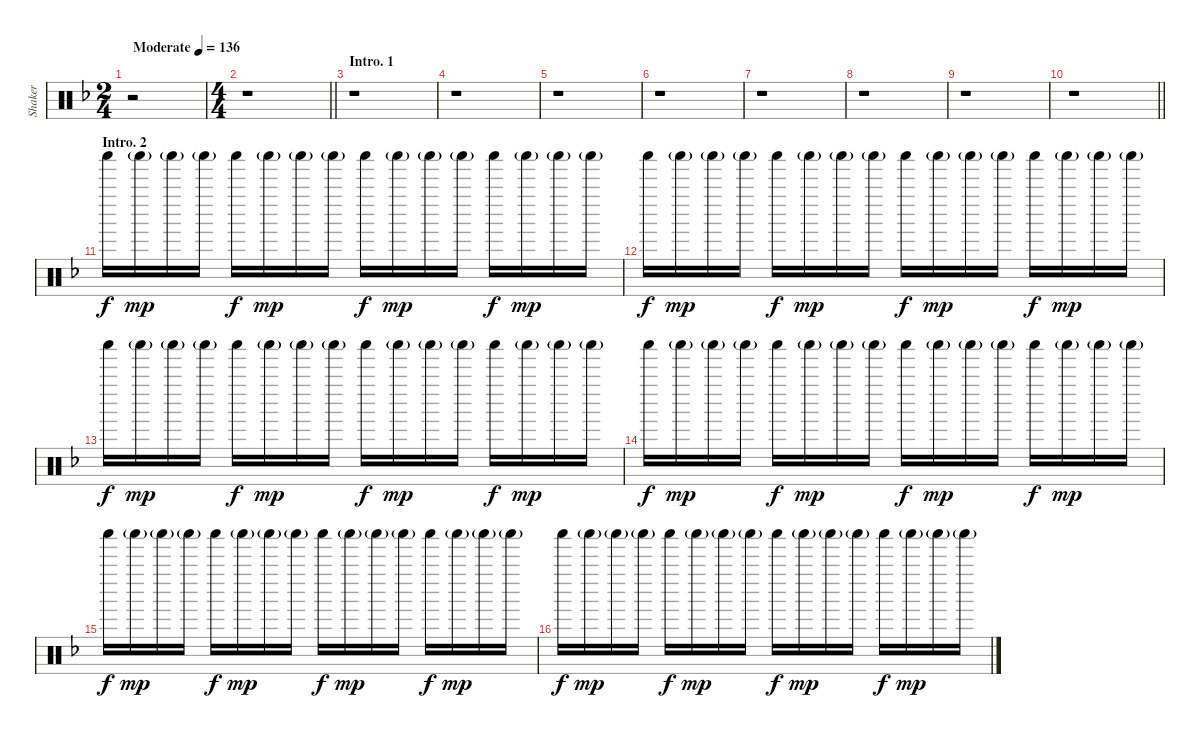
\track ("Shaker" "Shaker") {instrument percussion}
\staff {score}
\articulation defaults
\ts (2 4)
\tempo (136 "Moderate")
\clef neutral
\ks f
r.2{dy f} |
\ts (4 4)
\barLineRight lightlight
r.1 |
\section ("" "Intro. 1")
r.1 |
r.1 |
r.1 |
r.1 |
r.1 |
r.1 |
r.1 |
\barLineRight lightlight
r.1 |
\section ("" "Intro. 2")
"Shaker (hit)".16 "Shaker (hit)"{g}.16{dy mp} "Shaker (hit)"{g}.16 "Shaker (hit)"{g}.16 "Shaker (hit)".16{dy f} "Shaker (hit)"{g}.16{dy mp} "Shaker (hit)"{g}.16 "Shaker (hit)"{g}.16 "Shaker (hit)".16{dy f} "Shaker (hit)"{g}.16{dy mp} "Shaker (hit)"{g}.16 "Shaker (hit)"{g}.16 "Shaker (hit)".16{dy f} "Shaker (hit)"{g}.16{dy mp} "Shaker (hit)"{g}.16 "Shaker (hit)"{g}.16 |
"Shaker (hit)".16{dy f} "Shaker (hit)"{g}.16{dy mp} "Shaker (hit)"{g}.16 "Shaker (hit)"{g}.16 "Shaker (hit)".16{dy f} "Shaker (hit)"{g}.16{dy mp} "Shaker (hit)"{g}.16 "Shaker (hit)"{g}.16 "Shaker (hit)".16{dy f} "Shaker (hit)"{g}.16{dy mp} "Shaker (hit)"{g}.16 "Shaker (hit)"{g}.16 "Shaker (hit)".16{dy f} "Shaker (hit)"{g}.16{dy mp} "Shaker (hit)"{g}.16 "Shaker (hit)"{g}.16 |
"Shaker (hit)".16{dy f} "Shaker (hit)"{g}.16{dy mp} "Shaker (hit)"{g}.16 "Shaker (hit)"{g}.16 "Shaker (hit)".16{dy f} "Shaker (hit)"{g}.16{dy mp} "Shaker (hit)"{g}.16 "Shaker (hit)"{g}.16 "Shaker (hit)".16{dy f} "Shaker (hit)"{g}.16{dy mp} "Shaker (hit)"{g}.16 "Shaker (hit)"{g}.16 "Shaker (hit)".16{dy f} "Shaker (hit)"{g}.16{dy mp} "Shaker (hit)"{g}.16 "Shaker (hit)"{g}.16 |
"Shaker (hit)".16{dy f} "Shaker (hit)"{g}.16{dy mp} "Shaker (hit)"{g}.16 "Shaker (hit)"{g}.16 "Shaker (hit)".16{dy f} "Shaker (hit)"{g}.16{dy mp} "Shaker (hit)"{g}.16 "Shaker (hit)"{g}.16 "Shaker (hit)".16{dy f} "Shaker (hit)"{g}.16{dy mp} "Shaker (hit)"{g}.16 "Shaker (hit)"{g}.16 "Shaker (hit)".16{dy f} "Shaker (hit)"{g}.16{dy mp} "Shaker (hit)"{g}.16 "Shaker (hit)"{g}.16 |
"Shaker (hit)".16{dy f} "Shaker (hit)"{g}.16{dy mp} "Shaker (hit)"{g}.16 "Shaker (hit)"{g}.16 "Shaker (hit)".16{dy f} "Shaker (hit)"{g}.16{dy mp} "Shaker (hit)"{g}.16 "Shaker (hit)"{g}.16 "Shaker (hit)".16{dy f} "Shaker (hit)"{g}.16{dy mp} "Shaker (hit)"{g}.16 "Shaker (hit)"{g}.16 "Shaker (hit)".16{dy f} "Shaker (hit)"{g}.16{dy mp} "Shaker (hit)"{g}.16 "Shaker (hit)"{g}.16 |
"Shaker (hit)".16{dy f} "Shaker (hit)"{g}.16{dy mp} "Shaker (hit)"{g}.16 "Shaker (hit)"{g}.16 "Shaker (hit)".16{dy f} "Shaker (hit)"{g}.16{dy mp} "Shaker (hit)"{g}.16 "Shaker (hit)"{g}.16 "Shaker (hit)".16{dy f} "Shaker (hit)"{g}.16{dy mp} "Shaker (hit)"{g}.16 "Shaker (hit)"{g}.16 "Shaker (hit)".16{dy f} "Shaker (hit)"{g}.16{dy mp} "Shaker (hit)"{g}.16 "Shaker (hit)"{g}.16
